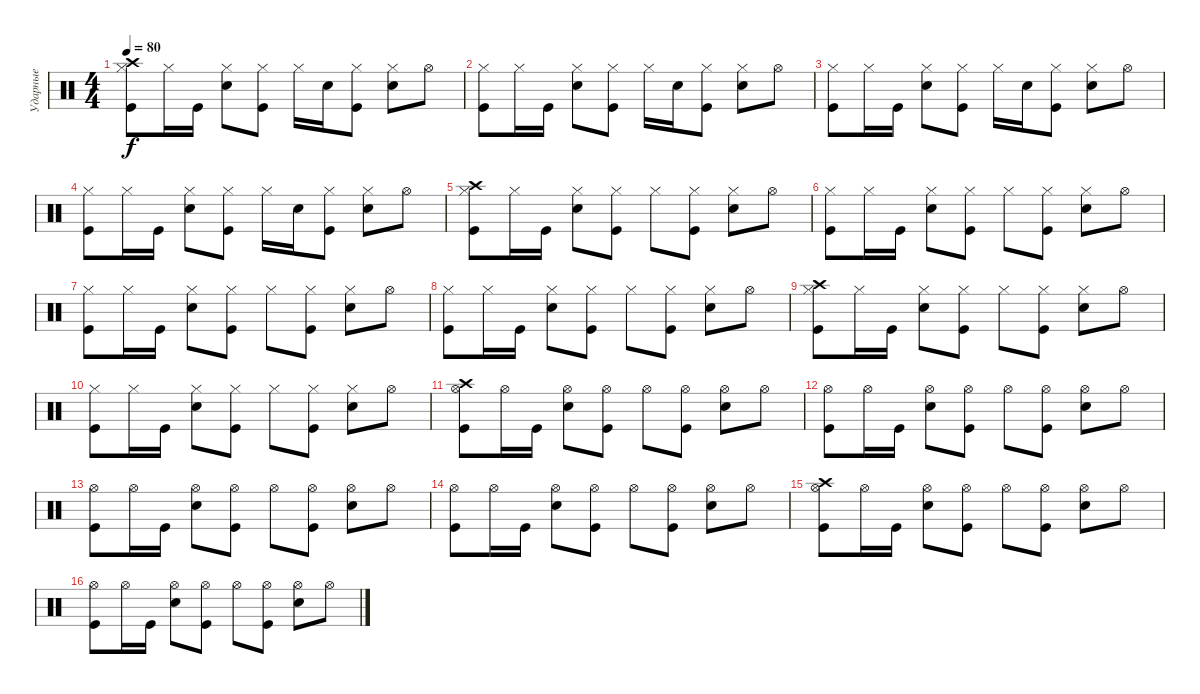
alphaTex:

\track ("Ударные" "Ударные") {instrument percussion}
\staff {score}
\articulation defaults
\ts (4 4)
\tempo 80
\clef neutral
\ks c
("Crash high (hit)" "Hi-Hat (closed)" "Kick (hit)").8{dy f balance 8} "Hi-Hat (closed)".16 "Kick (hit)".16 ("Hi-Hat (closed)" "Electric Snare (hit)").8 ("Hi-Hat (closed)" "Kick (hit)").8 "Hi-Hat (closed)".16 "Electric Snare (hit)".16 ("Hi-Hat (closed)" "Kick (hit)").8 ("Hi-Hat (closed)" "Electric Snare (hit)").8 "Hi-Hat (open)".8 |
("Hi-Hat (closed)" "Kick (hit)").8 "Hi-Hat (closed)".16 "Kick (hit)".16 ("Hi-Hat (closed)" "Electric Snare (hit)").8 ("Hi-Hat (closed)" "Kick (hit)").8 "Hi-Hat (closed)".16 "Electric Snare (hit)".16 ("Hi-Hat (closed)" "Kick (hit)").8 ("Hi-Hat (closed)" "Electric Snare (hit)").8 "Hi-Hat (open)".8 |
("Hi-Hat (closed)" "Kick (hit)").8 "Hi-Hat (closed)".16 "Kick (hit)".16 ("Hi-Hat (closed)" "Electric Snare (hit)").8 ("Hi-Hat (closed)" "Kick (hit)").8 "Hi-Hat (closed)".16 "Electric Snare (hit)".16 ("Hi-Hat (closed)" "Kick (hit)").8 ("Hi-Hat (closed)" "Electric Snare (hit)").8 "Hi-Hat (open)".8 |
("Hi-Hat (closed)" "Kick (hit)").8 "Hi-Hat (closed)".16 "Kick (hit)".16 ("Hi-Hat (closed)" "Electric Snare (hit)").8 ("Hi-Hat (closed)" "Kick (hit)").8 "Hi-Hat (closed)".16 "Electric Snare (hit)".16 ("Hi-Hat (closed)" "Kick (hit)").8 ("Hi-Hat (closed)" "Electric Snare (hit)").8 "Hi-Hat (open)".8 |
("Crash high (hit)" "Hi-Hat (closed)" "Kick (hit)").8 "Hi-Hat (closed)".16 "Kick (hit)".16 ("Hi-Hat (closed)" "Electric Snare (hit)").8 ("Hi-Hat (closed)" "Kick (hit)").8 "Hi-Hat (closed)".8 ("Hi-Hat (closed)" "Kick (hit)").8 ("Hi-Hat (closed)" "Electric Snare (hit)").8 "Hi-Hat (open)".8 |
("Hi-Hat (closed)" "Kick (hit)").8 "Hi-Hat (closed)".16 "Kick (hit)".16 ("Hi-Hat (closed)" "Electric Snare (hit)").8 ("Hi-Hat (closed)" "Kick (hit)").8 "Hi-Hat (closed)".8 ("Hi-Hat (closed)" "Kick (hit)").8 ("Hi-Hat (closed)" "Electric Snare (hit)").8 "Hi-Hat (open)".8 |
("Hi-Hat (closed)" "Kick (hit)").8 "Hi-Hat (closed)".16 "Kick (hit)".16 ("Hi-Hat (closed)" "Electric Snare (hit)").8 ("Hi-Hat (closed)" "Kick (hit)").8 "Hi-Hat (closed)".8 ("Hi-Hat (closed)" "Kick (hit)").8 ("Hi-Hat (closed)" "Electric Snare (hit)").8 "Hi-Hat (open)".8 |
("Hi-Hat (closed)" "Kick (hit)").8 "Hi-Hat (closed)".16 "Kick (hit)".16 ("Hi-Hat (closed)" "Electric Snare (hit)").8 ("Hi-Hat (closed)" "Kick (hit)").8 "Hi-Hat (closed)".8 ("Hi-Hat (closed)" "Kick (hit)").8 ("Hi-Hat (closed)" "Electric Snare (hit)").8 "Hi-Hat (open)".8 |
("Crash high (hit)" "Hi-Hat (closed)" "Kick (hit)").8 "Hi-Hat (closed)".16 "Kick (hit)".16 ("Hi-Hat (closed)" "Electric Snare (hit)").8 ("Hi-Hat (closed)" "Kick (hit)").8 "Hi-Hat (closed)".8 ("Hi-Hat (closed)" "Kick (hit)").8 ("Hi-Hat (closed)" "Electric Snare (hit)").8 "Hi-Hat (open)".8 |
("Hi-Hat (closed)" "Kick (hit)").8 "Hi-Hat (closed)".16 "Kick (hit)".16 ("Hi-Hat (closed)" "Electric Snare (hit)").8 ("Hi-Hat (closed)" "Kick (hit)").8 "Hi-Hat (closed)".8 ("Hi-Hat (closed)" "Kick (hit)").8 ("Hi-Hat (closed)" "Electric Snare (hit)").8 "Hi-Hat (open)".8 |
("Crash high (hit)" "Hi-Hat (open)" "Kick (hit)").8 "Hi-Hat (open)".16 "Kick (hit)".16 ("Hi-Hat (open)" "Electric Snare (hit)").8 ("Hi-Hat (open)" "Kick (hit)").8 "Hi-Hat (open)".8 ("Hi-Hat (open)" "Kick (hit)").8 ("Hi-Hat (open)" "Electric Snare (hit)").8 "Hi-Hat (open)".8 |
("Hi-Hat (open)" "Kick (hit)").8 "Hi-Hat (open)".16 "Kick (hit)".16 ("Hi-Hat (open)" "Electric Snare (hit)").8 ("Hi-Hat (open)" "Kick (hit)").8 "Hi-Hat (open)".8 ("Hi-Hat (open)" "Kick (hit)").8 ("Hi-Hat (open)" "Electric Snare (hit)").8 "Hi-Hat (open)".8 |
("Hi-Hat (open)" "Kick (hit)").8 "Hi-Hat (open)".16 "Kick (hit)".16 ("Hi-Hat (open)" "Electric Snare (hit)").8 ("Hi-Hat (open)" "Kick (hit)").8 "Hi-Hat (open)".8 ("Hi-Hat (open)" "Kick (hit)").8 ("Hi-Hat (open)" "Electric Snare (hit)").8 "Hi-Hat (open)".8 |
("Hi-Hat (open)" "Kick (hit)").8 "Hi-Hat (open)".16 "Kick (hit)".16 ("Hi-Hat (open)" "Electric Snare (hit)").8 ("Hi-Hat (open)" "Kick (hit)").8 "Hi-Hat (open)".8 ("Hi-Hat (open)" "Kick (hit)").8 ("Hi-Hat (open)" "Electric Snare (hit)").8 "Hi-Hat (open)".8 |
("Crash high (hit)" "Hi-Hat (open)" "Kick (hit)").8 "Hi-Hat (open)".16 "Kick (hit)".16 ("Hi-Hat (open)" "Electric Snare (hit)").8 ("Hi-Hat (open)" "Kick (hit)").8 "Hi-Hat (open)".8 ("Hi-Hat (open)" "Kick (hit)").8 ("Hi-Hat (open)" "Electric Snare (hit)").8 "Hi-Hat (open)".8 |
("Hi-Hat (open)" "Kick (hit)").8 "Hi-Hat (open)".16 "Kick (hit)".16 ("Hi-Hat (open)" "Electric Snare (hit)").8 ("Hi-Hat (open)" "Kick (hit)").8 "Hi-Hat (open)".8 ("Hi-Hat (open)" "Kick (hit)").8 ("Hi-Hat (open)" "Electric Snare (hit)").8 "Hi-Hat (open)".8
